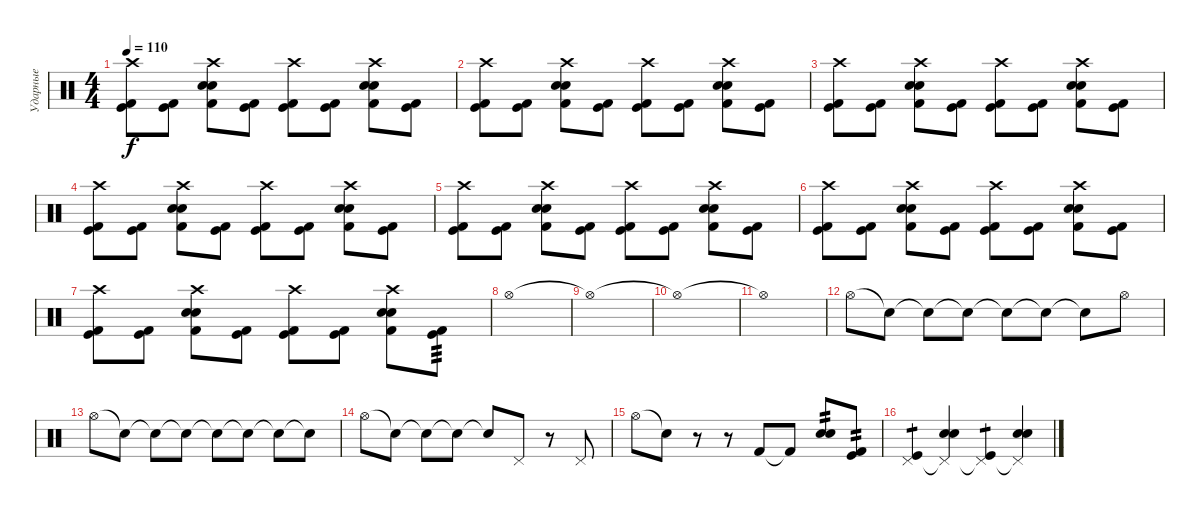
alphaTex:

\track ("Ударные" "Ударные") {instrument percussion}
\staff {score}
\articulation defaults
\ts (4 4)
\tempo 110
\clef neutral
\ks c
("Crash high (hit)" "Kick (hit)" "Kick (hit) 2").8{dy f} ("Kick (hit)" "Kick (hit) 2").8 ("Crash high (hit)" "Snare (hit) 2" "Electric Snare (hit)" "Kick (hit) 2").8 ("Kick (hit)" "Kick (hit) 2").8 ("Crash high (hit)" "Kick (hit)" "Kick (hit) 2").8 ("Kick (hit)" "Kick (hit) 2").8 ("Crash high (hit)" "Snare (hit) 2" "Electric Snare (hit)" "Kick (hit) 2").8 ("Kick (hit)" "Kick (hit) 2").8 |
("Crash high (hit)" "Kick (hit)" "Kick (hit) 2").8 ("Kick (hit)" "Kick (hit) 2").8 ("Crash high (hit)" "Snare (hit) 2" "Electric Snare (hit)" "Kick (hit) 2").8 ("Kick (hit)" "Kick (hit) 2").8 ("Crash high (hit)" "Kick (hit)" "Kick (hit) 2").8 ("Kick (hit)" "Kick (hit) 2").8 ("Crash high (hit)" "Snare (hit) 2" "Electric Snare (hit)" "Kick (hit) 2").8 ("Kick (hit)" "Kick (hit) 2").8 |
("Crash high (hit)" "Kick (hit)" "Kick (hit) 2").8 ("Kick (hit)" "Kick (hit) 2").8 ("Crash high (hit)" "Snare (hit) 2" "Electric Snare (hit)" "Kick (hit) 2").8 ("Kick (hit)" "Kick (hit) 2").8 ("Crash high (hit)" "Kick (hit)" "Kick (hit) 2").8 ("Kick (hit)" "Kick (hit) 2").8 ("Crash high (hit)" "Snare (hit) 2" "Electric Snare (hit)" "Kick (hit) 2").8 ("Kick (hit)" "Kick (hit) 2").8 |
("Crash high (hit)" "Kick (hit)" "Kick (hit) 2").8 ("Kick (hit)" "Kick (hit) 2").8 ("Crash high (hit)" "Snare (hit) 2" "Electric Snare (hit)" "Kick (hit) 2").8 ("Kick (hit)" "Kick (hit) 2").8 ("Crash high (hit)" "Kick (hit)" "Kick (hit) 2").8 ("Kick (hit)" "Kick (hit) 2").8 ("Crash high (hit)" "Snare (hit) 2" "Electric Snare (hit)" "Kick (hit) 2").8 ("Kick (hit)" "Kick (hit) 2").8 |
("Crash high (hit)" "Kick (hit)" "Kick (hit) 2").8 ("Kick (hit)" "Kick (hit) 2").8 ("Crash high (hit)" "Snare (hit) 2" "Electric Snare (hit)" "Kick (hit) 2").8 ("Kick (hit)" "Kick (hit) 2").8 ("Crash high (hit)" "Kick (hit)" "Kick (hit) 2").8 ("Kick (hit)" "Kick (hit) 2").8 ("Crash high (hit)" "Snare (hit) 2" "Electric Snare (hit)" "Kick (hit) 2").8 ("Kick (hit)" "Kick (hit) 2").8 |
("Crash high (hit)" "Kick (hit)" "Kick (hit) 2").8 ("Kick (hit)" "Kick (hit) 2").8 ("Crash high (hit)" "Snare (hit) 2" "Electric Snare (hit)" "Kick (hit) 2").8 ("Kick (hit)" "Kick (hit) 2").8 ("Crash high (hit)" "Kick (hit)" "Kick (hit) 2").8 ("Kick (hit)" "Kick (hit) 2").8 ("Crash high (hit)" "Snare (hit) 2" "Electric Snare (hit)" "Kick (hit) 2").8 ("Kick (hit)" "Kick (hit) 2").8 |
("Crash high (hit)" "Kick (hit)" "Kick (hit) 2").8 ("Kick (hit)" "Kick (hit) 2").8 ("Crash high (hit)" "Snare (hit) 2" "Electric Snare (hit)" "Kick (hit) 2").8 ("Kick (hit)" "Kick (hit) 2").8 ("Crash high (hit)" "Kick (hit)" "Kick (hit) 2").8 ("Kick (hit)" "Kick (hit) 2").8 ("Crash high (hit)" "Snare (hit) 2" "Electric Snare (hit)" "Kick (hit) 2").8 ("Kick (hit)" "Kick (hit) 2").8{tp 3} |
"Hi-Hat (open)".1 |
"Hi-Hat (open)"{t}.1 |
"Hi-Hat (open)"{t}.1 |
"Hi-Hat (open)"{t}.1 |
"Hi-Hat (open)".8 "Snare (hit)"{t}.8 "Snare (hit)"{t}.8 "Snare (hit)"{t}.8 "Snare (hit)"{t}.8 "Snare (hit)"{t}.8 "Snare (hit)"{t}.8 "Hi-Hat (open)".8 |
"Hi-Hat (open)".8 "Snare (hit)"{t}.8 "Snare (hit)"{t}.8 "Snare (hit)"{t}.8 "Snare (hit)"{t}.8 "Snare (hit)"{t}.8 "Snare (hit)"{t}.8 "Snare (hit)"{t}.8 |
"Hi-Hat (open)".8 "Snare (hit)"{t}.8 "Snare (hit)"{t}.8 "Snare (hit)"{t}.8 "Snare (hit)"{t}.8 "Pedal Hi-Hat (hit)".8 r.8 "Pedal Hi-Hat (hit)".8 |
"Hi-Hat (open)".8 "Snare (hit)"{t}.8 r.8 r.8 "Kick (hit) 2".8 "Kick (hit) 2"{t}.8 ("Snare (hit) 2" "Electric Snare (hit)").8{tp 2} ("Kick (hit)" "Kick (hit) 2").8{tp 2} |
("Pedal Hi-Hat (hit)" "Kick (hit)").4{tp 1} ("Pedal Hi-Hat (hit)"{t} "Electric Snare (hit)" "Snare (hit) 2").4 ("Pedal Hi-Hat (hit)"{t} "Kick (hit)").4{tp 1} ("Pedal Hi-Hat (hit)"{t} "Electric Snare (hit)" "Snare (hit) 2").4
